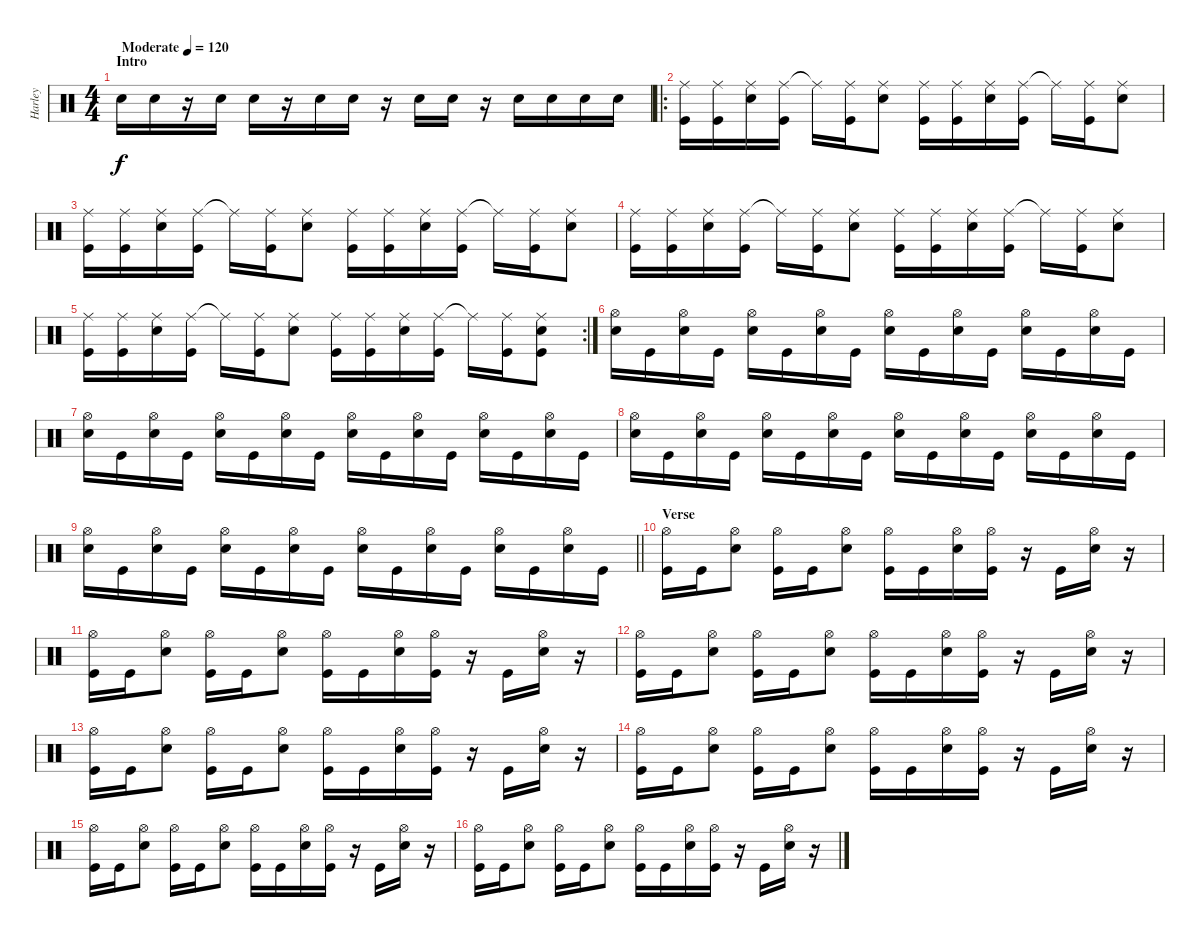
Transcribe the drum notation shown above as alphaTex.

\track ("Harley" "Harley") {instrument percussion}
\staff {score}
\articulation defaults
\ts (4 4)
\section ("" "Intro")
\tempo (120 "Moderate")
\clef neutral
\ks c "Snare (hit) 2".16{dy f} "Snare (hit) 2".16
r.16 "Snare (hit) 2".16 "Snare (hit) 2".16 r.16 "Snare (hit) 2".16 "Snare (hit) 2".16 r.16 "Snare (hit) 2".16 "Snare (hit) 2".16 r.16 "Snare (hit) 2".16 "Snare (hit) 2".16 "Snare (hit) 2".16 "Snare (hit) 2".16 |
\ro
("Ride (middle)" "Kick (hit)").16 ("Ride (middle)" "Kick (hit)").16 ("Ride (middle)" "Snare (hit) 2").16 ("Ride (middle)" "Kick (hit)").16 "Ride (middle)"{t}.16 ("Ride (middle)" "Kick (hit)").16 ("Ride (middle)" "Snare (hit) 2").8 ("Ride (middle)" "Kick (hit)").16 ("Ride (middle)" "Kick (hit)").16 ("Ride (middle)" "Snare (hit) 2").16 ("Ride (middle)" "Kick (hit)").16 "Ride (middle)"{t}.16 ("Ride (middle)" "Kick (hit)").16 ("Ride (middle)" "Snare (hit) 2").8 |
("Ride (middle)" "Kick (hit)").16 ("Ride (middle)" "Kick (hit)").16 ("Ride (middle)" "Snare (hit) 2").16 ("Ride (middle)" "Kick (hit)").16 "Ride (middle)"{t}.16 ("Ride (middle)" "Kick (hit)").16 ("Ride (middle)" "Snare (hit) 2").8 ("Ride (middle)" "Kick (hit)").16 ("Ride (middle)" "Kick (hit)").16 ("Ride (middle)" "Snare (hit) 2").16 ("Ride (middle)" "Kick (hit)").16 "Ride (middle)"{t}.16 ("Ride (middle)" "Kick (hit)").16 ("Ride (middle)" "Snare (hit) 2").8 |
("Ride (middle)" "Kick (hit)").16 ("Ride (middle)" "Kick (hit)").16 ("Ride (middle)" "Snare (hit) 2").16 ("Ride (middle)" "Kick (hit)").16 "Ride (middle)"{t}.16 ("Ride (middle)" "Kick (hit)").16 ("Ride (middle)" "Snare (hit) 2").8 ("Ride (middle)" "Kick (hit)").16 ("Ride (middle)" "Kick (hit)").16 ("Ride (middle)" "Snare (hit) 2").16 ("Ride (middle)" "Kick (hit)").16 "Ride (middle)"{t}.16 ("Ride (middle)" "Kick (hit)").16 ("Ride (middle)" "Snare (hit) 2").8 |
\rc 2
("Ride (middle)" "Kick (hit)").16 ("Ride (middle)" "Kick (hit)").16 ("Ride (middle)" "Snare (hit) 2").16 ("Ride (middle)" "Kick (hit)").16 "Ride (middle)"{t}.16 ("Ride (middle)" "Kick (hit)").16 ("Ride (middle)" "Snare (hit) 2").8 ("Ride (middle)" "Kick (hit)").16 ("Ride (middle)" "Kick (hit)").16 ("Ride (middle)" "Snare (hit) 2").16 ("Ride (middle)" "Kick (hit)").16 "Ride (middle)"{t}.16 ("Ride (middle)" "Kick (hit)").16 ("Ride (middle)" "Kick (hit)" "Snare (hit) 2").8 |
("Hi-Hat (open)" "Snare (hit) 2").16 "Kick (hit)".16 ("Hi-Hat (open)" "Snare (hit) 2").16 "Kick (hit)".16 ("Hi-Hat (open)" "Snare (hit) 2").16 "Kick (hit)".16 ("Hi-Hat (open)" "Snare (hit) 2").16 "Kick (hit)".16 ("Hi-Hat (open)" "Snare (hit) 2").16 "Kick (hit)".16 ("Hi-Hat (open)" "Snare (hit) 2").16 "Kick (hit)".16 ("Hi-Hat (open)" "Snare (hit) 2").16 "Kick (hit)".16 ("Hi-Hat (open)" "Snare (hit) 2").16 "Kick (hit)".16 |
("Hi-Hat (open)" "Snare (hit) 2").16 "Kick (hit)".16 ("Hi-Hat (open)" "Snare (hit) 2").16 "Kick (hit)".16 ("Hi-Hat (open)" "Snare (hit) 2").16 "Kick (hit)".16 ("Hi-Hat (open)" "Snare (hit) 2").16 "Kick (hit)".16 ("Hi-Hat (open)" "Snare (hit) 2").16 "Kick (hit)".16 ("Hi-Hat (open)" "Snare (hit) 2").16 "Kick (hit)".16 ("Hi-Hat (open)" "Snare (hit) 2").16 "Kick (hit)".16 ("Hi-Hat (open)" "Snare (hit) 2").16 "Kick (hit)".16 |
("Hi-Hat (open)" "Snare (hit) 2").16 "Kick (hit)".16 ("Hi-Hat (open)" "Snare (hit) 2").16 "Kick (hit)".16 ("Hi-Hat (open)" "Snare (hit) 2").16 "Kick (hit)".16 ("Hi-Hat (open)" "Snare (hit) 2").16 "Kick (hit)".16 ("Hi-Hat (open)" "Snare (hit) 2").16 "Kick (hit)".16 ("Hi-Hat (open)" "Snare (hit) 2").16 "Kick (hit)".16 ("Hi-Hat (open)" "Snare (hit) 2").16 "Kick (hit)".16 ("Hi-Hat (open)" "Snare (hit) 2").16 "Kick (hit)".16 |
\barLineRight lightlight
("Hi-Hat (open)" "Snare (hit) 2").16 "Kick (hit)".16 ("Hi-Hat (open)" "Snare (hit) 2").16 "Kick (hit)".16 ("Hi-Hat (open)" "Snare (hit) 2").16 "Kick (hit)".16 ("Hi-Hat (open)" "Snare (hit) 2").16 "Kick (hit)".16 ("Hi-Hat (open)" "Snare (hit) 2").16 "Kick (hit)".16 ("Hi-Hat (open)" "Snare (hit) 2").16 "Kick (hit)".16 ("Hi-Hat (open)" "Snare (hit) 2").16 "Kick (hit)".16 ("Hi-Hat (open)" "Snare (hit) 2").16 "Kick (hit)".16 |
\section ("" "Verse")
("Hi-Hat (open)" "Kick (hit)").16 "Kick (hit)".16 ("Hi-Hat (open)" "Snare (hit) 2").8 ("Hi-Hat (open)" "Kick (hit)").16 "Kick (hit)".16 ("Hi-Hat (open)" "Snare (hit) 2").8 ("Hi-Hat (open)" "Kick (hit)").16 "Kick (hit)".16 ("Hi-Hat (open)" "Snare (hit) 2").16 ("Hi-Hat (open)" "Kick (hit)").16 r.16 "Kick (hit)".16 ("Hi-Hat (open)" "Snare (hit) 2").16 r.16 |
("Hi-Hat (open)" "Kick (hit)").16 "Kick (hit)".16 ("Hi-Hat (open)" "Snare (hit) 2").8 ("Hi-Hat (open)" "Kick (hit)").16 "Kick (hit)".16 ("Hi-Hat (open)" "Snare (hit) 2").8 ("Hi-Hat (open)" "Kick (hit)").16 "Kick (hit)".16 ("Hi-Hat (open)" "Snare (hit) 2").16 ("Hi-Hat (open)" "Kick (hit)").16 r.16 "Kick (hit)".16 ("Hi-Hat (open)" "Snare (hit) 2").16 r.16 |
("Hi-Hat (open)" "Kick (hit)").16 "Kick (hit)".16 ("Hi-Hat (open)" "Snare (hit) 2").8 ("Hi-Hat (open)" "Kick (hit)").16 "Kick (hit)".16 ("Hi-Hat (open)" "Snare (hit) 2").8 ("Hi-Hat (open)" "Kick (hit)").16 "Kick (hit)".16 ("Hi-Hat (open)" "Snare (hit) 2").16 ("Hi-Hat (open)" "Kick (hit)").16 r.16 "Kick (hit)".16 ("Hi-Hat (open)" "Snare (hit) 2").16 r.16 |
("Hi-Hat (open)" "Kick (hit)").16 "Kick (hit)".16 ("Hi-Hat (open)" "Snare (hit) 2").8 ("Hi-Hat (open)" "Kick (hit)").16 "Kick (hit)".16 ("Hi-Hat (open)" "Snare (hit) 2").8 ("Hi-Hat (open)" "Kick (hit)").16 "Kick (hit)".16 ("Hi-Hat (open)" "Snare (hit) 2").16 ("Hi-Hat (open)" "Kick (hit)").16 r.16 "Kick (hit)".16 ("Hi-Hat (open)" "Snare (hit) 2").16 r.16 |
("Hi-Hat (open)" "Kick (hit)").16 "Kick (hit)".16 ("Hi-Hat (open)" "Snare (hit) 2").8 ("Hi-Hat (open)" "Kick (hit)").16 "Kick (hit)".16 ("Hi-Hat (open)" "Snare (hit) 2").8 ("Hi-Hat (open)" "Kick (hit)").16 "Kick (hit)".16 ("Hi-Hat (open)" "Snare (hit) 2").16 ("Hi-Hat (open)" "Kick (hit)").16 r.16 "Kick (hit)".16 ("Hi-Hat (open)" "Snare (hit) 2").16 r.16 |
("Hi-Hat (open)" "Kick (hit)").16 "Kick (hit)".16 ("Hi-Hat (open)" "Snare (hit) 2").8 ("Hi-Hat (open)" "Kick (hit)").16 "Kick (hit)".16 ("Hi-Hat (open)" "Snare (hit) 2").8 ("Hi-Hat (open)" "Kick (hit)").16 "Kick (hit)".16 ("Hi-Hat (open)" "Snare (hit) 2").16 ("Hi-Hat (open)" "Kick (hit)").16 r.16 "Kick (hit)".16 ("Hi-Hat (open)" "Snare (hit) 2").16 r.16 |
("Hi-Hat (open)" "Kick (hit)").16 "Kick (hit)".16 ("Hi-Hat (open)" "Snare (hit) 2").8 ("Hi-Hat (open)" "Kick (hit)").16 "Kick (hit)".16 ("Hi-Hat (open)" "Snare (hit) 2").8 ("Hi-Hat (open)" "Kick (hit)").16 "Kick (hit)".16 ("Hi-Hat (open)" "Snare (hit) 2").16 ("Hi-Hat (open)" "Kick (hit)").16 r.16 "Kick (hit)".16 ("Hi-Hat (open)" "Snare (hit) 2").16 r.16
